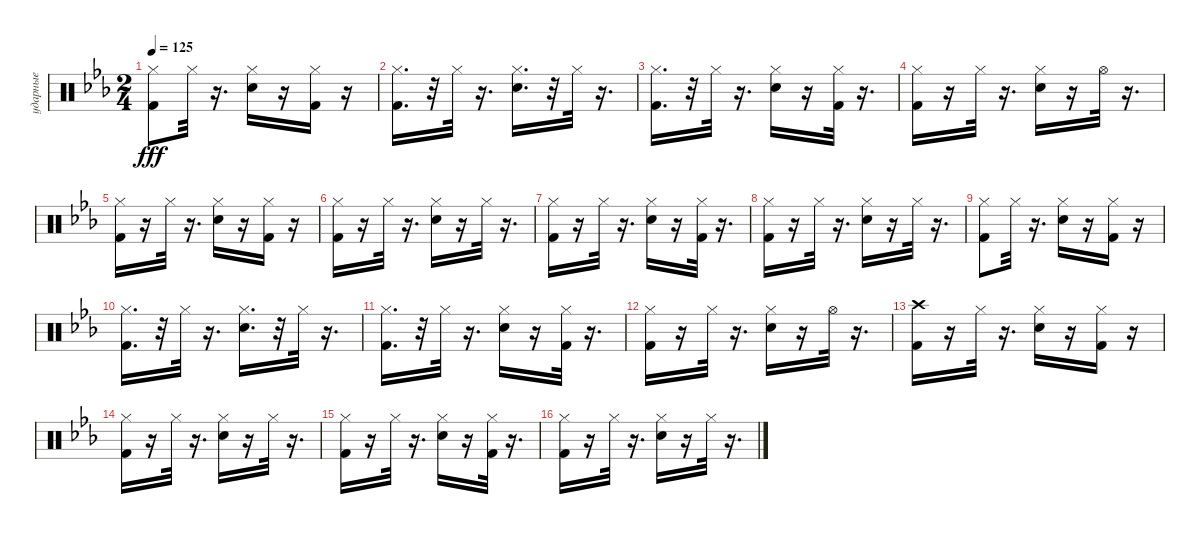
\track ("ударные" "ударные") {instrument percussion}
\staff {score}
\articulation defaults
\ts (2 4)
\tempo 125
\clef neutral
\ks cminor
("Kick (hit) 2" "Hi-Hat (closed)").8{dy fff} "Hi-Hat (closed)".32 r.16{d} ("Snare (hit) 2" "Hi-Hat (closed)").16 r.16 ("Kick (hit) 2" "Hi-Hat (closed)").16 r.16 |
("Kick (hit) 2" "Hi-Hat (closed)").16{d} r.32 "Hi-Hat (closed)".32 r.16{d} ("Snare (hit) 2" "Hi-Hat (closed)").16{d} r.32 "Hi-Hat (closed)".32 r.16{d} |
("Kick (hit) 2" "Hi-Hat (closed)").16{d} r.32 "Hi-Hat (closed)".32 r.16{d} ("Snare (hit) 2" "Hi-Hat (closed)").16 r.16 ("Kick (hit) 2" "Hi-Hat (closed)").32 r.16{d} |
("Kick (hit) 2" "Hi-Hat (closed)").16 r.16 "Hi-Hat (closed)".32 r.16{d} ("Snare (hit) 2" "Hi-Hat (closed)").16 r.16 "Hi-Hat (open)".32 r.16{d} |
("Kick (hit) 2" "Hi-Hat (closed)").16 r.16 "Hi-Hat (closed)".32 r.16{d} ("Snare (hit) 2" "Hi-Hat (closed)").16 r.16 ("Kick (hit) 2" "Hi-Hat (closed)").16 r.16 |
("Kick (hit) 2" "Hi-Hat (closed)").16 r.16 "Hi-Hat (closed)".32 r.16{d} ("Snare (hit) 2" "Hi-Hat (closed)").16 r.16 "Hi-Hat (closed)".32 r.16{d} |
("Kick (hit) 2" "Hi-Hat (closed)").16 r.16 "Hi-Hat (closed)".32 r.16{d} ("Snare (hit) 2" "Hi-Hat (closed)").16 r.16 ("Kick (hit) 2" "Hi-Hat (closed)").32 r.16{d} |
("Kick (hit) 2" "Hi-Hat (closed)").16 r.16 "Hi-Hat (closed)".32 r.16{d} ("Snare (hit) 2" "Hi-Hat (closed)").16 r.16 "Hi-Hat (closed)".32 r.16{d} |
("Kick (hit) 2" "Hi-Hat (closed)").8 "Hi-Hat (closed)".32 r.16{d} ("Snare (hit) 2" "Hi-Hat (closed)").16 r.16 ("Kick (hit) 2" "Hi-Hat (closed)").16 r.16 |
("Kick (hit) 2" "Hi-Hat (closed)").16{d} r.32 "Hi-Hat (closed)".32 r.16{d} ("Snare (hit) 2" "Hi-Hat (closed)").16{d} r.32 "Hi-Hat (closed)".32 r.16{d} |
("Kick (hit) 2" "Hi-Hat (closed)").16{d} r.32 "Hi-Hat (closed)".32 r.16{d} ("Snare (hit) 2" "Hi-Hat (closed)").16 r.16 ("Kick (hit) 2" "Hi-Hat (closed)").32 r.16{d} |
("Kick (hit) 2" "Hi-Hat (closed)").16 r.16 "Hi-Hat (closed)".32 r.16{d} ("Snare (hit) 2" "Hi-Hat (closed)").16 r.16 "Hi-Hat (open)".32 r.16{d} |
("Kick (hit) 2" "Crash high (hit)").16 r.16 "Hi-Hat (closed)".32 r.16{d} ("Snare (hit) 2" "Hi-Hat (closed)").16 r.16 ("Kick (hit) 2" "Hi-Hat (closed)").16 r.16 |
("Kick (hit) 2" "Hi-Hat (closed)").16 r.16 "Hi-Hat (closed)".32 r.16{d} ("Snare (hit) 2" "Hi-Hat (closed)").16 r.16 "Hi-Hat (closed)".32 r.16{d} |
("Kick (hit) 2" "Hi-Hat (closed)").16 r.16 "Hi-Hat (closed)".32 r.16{d} ("Snare (hit) 2" "Hi-Hat (closed)").16 r.16 ("Kick (hit) 2" "Hi-Hat (closed)").32 r.16{d} |
("Kick (hit) 2" "Hi-Hat (closed)").16 r.16 "Hi-Hat (closed)".32 r.16{d} ("Snare (hit) 2" "Hi-Hat (closed)").16 r.16 "Hi-Hat (closed)".32 r.16{d}
